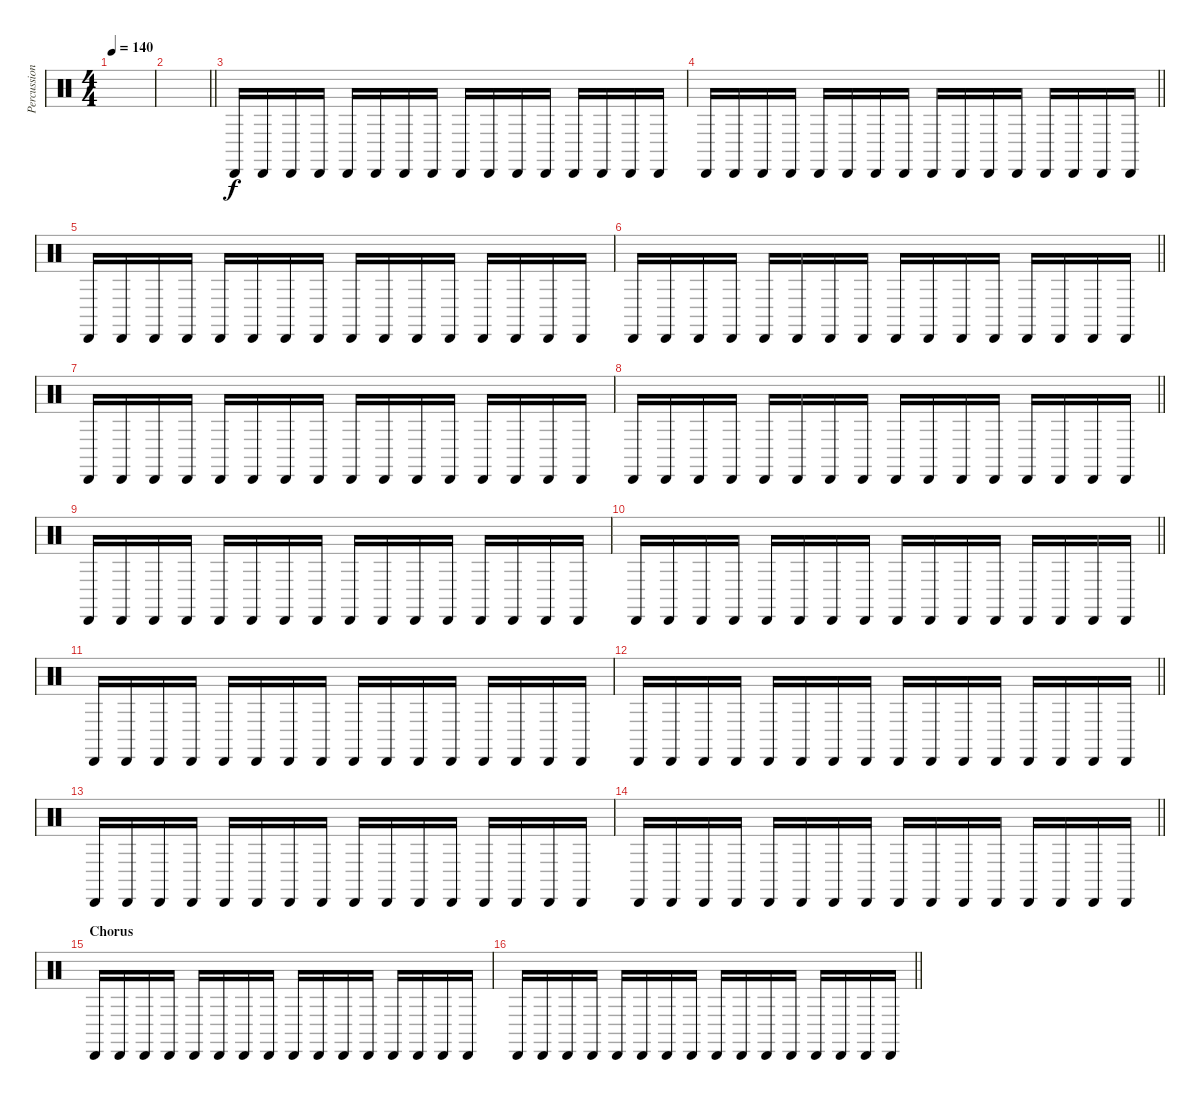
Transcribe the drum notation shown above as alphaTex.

\track ("Percussioni" "Percussion") {instrument percussion}
\staff {score}
\articulation defaults
\ts (4 4)
\tempo 140
\clef neutral
\ks c
|
\barLineRight lightlight
|
"Cabasa (hit)".16 "Cabasa (hit)".16 "Cabasa (hit)".16 "Cabasa (hit)".16 "Cabasa (hit)".16 "Cabasa (hit)".16 "Cabasa (hit)".16 "Cabasa (hit)".16 "Cabasa (hit)".16 "Cabasa (hit)".16 "Cabasa (hit)".16 "Cabasa (hit)".16 "Cabasa (hit)".16 "Cabasa (hit)".16 "Cabasa (hit)".16 "Cabasa (hit)".16 |
\barLineRight lightlight "Cabasa (hit)".16 "Cabasa (hit)".16 "Cabasa (hit)".16 "Cabasa (hit)".16 "Cabasa (hit)".16 "Cabasa (hit)".16 "Cabasa (hit)".16 "Cabasa (hit)".16 "Cabasa (hit)".16 "Cabasa (hit)".16 "Cabasa (hit)".16 "Cabasa (hit)".16 "Cabasa (hit)".16 "Cabasa (hit)".16 "Cabasa (hit)".16 "Cabasa (hit)".16
|
"Cabasa (hit)".16 "Cabasa (hit)".16 "Cabasa (hit)".16 "Cabasa (hit)".16 "Cabasa (hit)".16 "Cabasa (hit)".16 "Cabasa (hit)".16 "Cabasa (hit)".16 "Cabasa (hit)".16 "Cabasa (hit)".16 "Cabasa (hit)".16 "Cabasa (hit)".16 "Cabasa (hit)".16 "Cabasa (hit)".16 "Cabasa (hit)".16 "Cabasa (hit)".16 |
\barLineRight lightlight "Cabasa (hit)".16 "Cabasa (hit)".16 "Cabasa (hit)".16 "Cabasa (hit)".16 "Cabasa (hit)".16 "Cabasa (hit)".16 "Cabasa (hit)".16 "Cabasa (hit)".16 "Cabasa (hit)".16 "Cabasa (hit)".16 "Cabasa (hit)".16 "Cabasa (hit)".16 "Cabasa (hit)".16 "Cabasa (hit)".16 "Cabasa (hit)".16 "Cabasa (hit)".16
|
"Cabasa (hit)".16 "Cabasa (hit)".16 "Cabasa (hit)".16 "Cabasa (hit)".16 "Cabasa (hit)".16 "Cabasa (hit)".16 "Cabasa (hit)".16 "Cabasa (hit)".16 "Cabasa (hit)".16 "Cabasa (hit)".16 "Cabasa (hit)".16 "Cabasa (hit)".16 "Cabasa (hit)".16 "Cabasa (hit)".16 "Cabasa (hit)".16 "Cabasa (hit)".16 |
\barLineRight lightlight "Cabasa (hit)".16 "Cabasa (hit)".16 "Cabasa (hit)".16 "Cabasa (hit)".16 "Cabasa (hit)".16 "Cabasa (hit)".16 "Cabasa (hit)".16 "Cabasa (hit)".16 "Cabasa (hit)".16 "Cabasa (hit)".16 "Cabasa (hit)".16 "Cabasa (hit)".16 "Cabasa (hit)".16 "Cabasa (hit)".16 "Cabasa (hit)".16 "Cabasa (hit)".16
|
"Cabasa (hit)".16 "Cabasa (hit)".16 "Cabasa (hit)".16 "Cabasa (hit)".16 "Cabasa (hit)".16 "Cabasa (hit)".16 "Cabasa (hit)".16 "Cabasa (hit)".16 "Cabasa (hit)".16 "Cabasa (hit)".16 "Cabasa (hit)".16 "Cabasa (hit)".16 "Cabasa (hit)".16 "Cabasa (hit)".16 "Cabasa (hit)".16 "Cabasa (hit)".16 |
\barLineRight lightlight "Cabasa (hit)".16 "Cabasa (hit)".16 "Cabasa (hit)".16 "Cabasa (hit)".16 "Cabasa (hit)".16 "Cabasa (hit)".16 "Cabasa (hit)".16 "Cabasa (hit)".16 "Cabasa (hit)".16 "Cabasa (hit)".16 "Cabasa (hit)".16 "Cabasa (hit)".16 "Cabasa (hit)".16 "Cabasa (hit)".16 "Cabasa (hit)".16 "Cabasa (hit)".16
|
"Cabasa (hit)".16 "Cabasa (hit)".16 "Cabasa (hit)".16 "Cabasa (hit)".16 "Cabasa (hit)".16 "Cabasa (hit)".16 "Cabasa (hit)".16 "Cabasa (hit)".16 "Cabasa (hit)".16 "Cabasa (hit)".16 "Cabasa (hit)".16 "Cabasa (hit)".16 "Cabasa (hit)".16 "Cabasa (hit)".16 "Cabasa (hit)".16 "Cabasa (hit)".16 |
\barLineRight lightlight "Cabasa (hit)".16 "Cabasa (hit)".16 "Cabasa (hit)".16 "Cabasa (hit)".16 "Cabasa (hit)".16 "Cabasa (hit)".16 "Cabasa (hit)".16 "Cabasa (hit)".16 "Cabasa (hit)".16 "Cabasa (hit)".16 "Cabasa (hit)".16 "Cabasa (hit)".16 "Cabasa (hit)".16 "Cabasa (hit)".16 "Cabasa (hit)".16 "Cabasa (hit)".16
|
"Cabasa (hit)".16 "Cabasa (hit)".16 "Cabasa (hit)".16 "Cabasa (hit)".16 "Cabasa (hit)".16 "Cabasa (hit)".16 "Cabasa (hit)".16 "Cabasa (hit)".16 "Cabasa (hit)".16 "Cabasa (hit)".16 "Cabasa (hit)".16 "Cabasa (hit)".16 "Cabasa (hit)".16 "Cabasa (hit)".16 "Cabasa (hit)".16 "Cabasa (hit)".16 |
\barLineRight lightlight "Cabasa (hit)".16 "Cabasa (hit)".16 "Cabasa (hit)".16 "Cabasa (hit)".16 "Cabasa (hit)".16 "Cabasa (hit)".16 "Cabasa (hit)".16 "Cabasa (hit)".16 "Cabasa (hit)".16 "Cabasa (hit)".16 "Cabasa (hit)".16 "Cabasa (hit)".16 "Cabasa (hit)".16 "Cabasa (hit)".16 "Cabasa (hit)".16 "Cabasa (hit)".16
|
\section ("" "Chorus")
"Cabasa (hit)".16 "Cabasa (hit)".16 "Cabasa (hit)".16 "Cabasa (hit)".16 "Cabasa (hit)".16 "Cabasa (hit)".16 "Cabasa (hit)".16 "Cabasa (hit)".16 "Cabasa (hit)".16 "Cabasa (hit)".16 "Cabasa (hit)".16 "Cabasa (hit)".16 "Cabasa (hit)".16 "Cabasa (hit)".16 "Cabasa (hit)".16 "Cabasa (hit)".16 |
\barLineRight lightlight "Cabasa (hit)".16 "Cabasa (hit)".16 "Cabasa (hit)".16 "Cabasa (hit)".16 "Cabasa (hit)".16 "Cabasa (hit)".16 "Cabasa (hit)".16 "Cabasa (hit)".16 "Cabasa (hit)".16 "Cabasa (hit)".16 "Cabasa (hit)".16 "Cabasa (hit)".16 "Cabasa (hit)".16 "Cabasa (hit)".16 "Cabasa (hit)".16 "Cabasa (hit)".16
